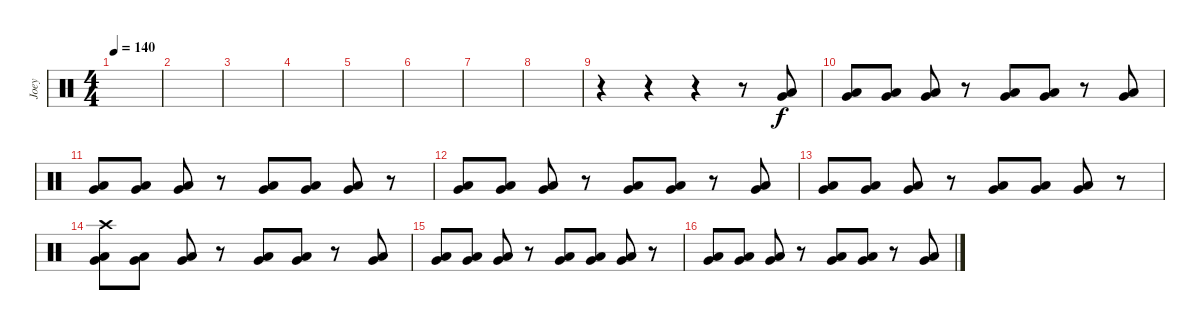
\track ("Joey" "Joey") {instrument percussion}
\staff {score}
\articulation defaults
\ts (4 4)
\tempo 140
\clef neutral
\ks c
|
|
|
|
|
|
|
|
r.4 r.4 r.4 r.8 ("Very Low Tom (hit)" "Low Floor Tom (hit)").8 |
("Very Low Tom (hit)" "Low Floor Tom (hit)").8 ("Very Low Tom (hit)" "Low Floor Tom (hit)").8 ("Very Low Tom (hit)" "Low Floor Tom (hit)").8 r.8 ("Very Low Tom (hit)" "Low Floor Tom (hit)").8 ("Very Low Tom (hit)" "Low Floor Tom (hit)").8 r.8 ("Very Low Tom (hit)" "Low Floor Tom (hit)").8 |
("Very Low Tom (hit)" "Low Floor Tom (hit)").8 ("Very Low Tom (hit)" "Low Floor Tom (hit)").8 ("Very Low Tom (hit)" "Low Floor Tom (hit)").8 r.8 ("Very Low Tom (hit)" "Low Floor Tom (hit)").8 ("Very Low Tom (hit)" "Low Floor Tom (hit)").8 ("Very Low Tom (hit)" "Low Floor Tom (hit)").8 r.8 |
("Very Low Tom (hit)" "Low Floor Tom (hit)").8 ("Very Low Tom (hit)" "Low Floor Tom (hit)").8 ("Very Low Tom (hit)" "Low Floor Tom (hit)").8 r.8 ("Very Low Tom (hit)" "Low Floor Tom (hit)").8 ("Very Low Tom (hit)" "Low Floor Tom (hit)").8 r.8 ("Very Low Tom (hit)" "Low Floor Tom (hit)").8 |
("Very Low Tom (hit)" "Low Floor Tom (hit)").8 ("Very Low Tom (hit)" "Low Floor Tom (hit)").8 ("Very Low Tom (hit)" "Low Floor Tom (hit)").8 r.8 ("Very Low Tom (hit)" "Low Floor Tom (hit)").8 ("Very Low Tom (hit)" "Low Floor Tom (hit)").8 ("Very Low Tom (hit)" "Low Floor Tom (hit)").8 r.8 |
("Crash high (hit)" "Very Low Tom (hit)" "Low Floor Tom (hit)").8 ("Very Low Tom (hit)" "Low Floor Tom (hit)").8 ("Very Low Tom (hit)" "Low Floor Tom (hit)").8 r.8 ("Very Low Tom (hit)" "Low Floor Tom (hit)").8 ("Very Low Tom (hit)" "Low Floor Tom (hit)").8 r.8 ("Very Low Tom (hit)" "Low Floor Tom (hit)").8 |
("Very Low Tom (hit)" "Low Floor Tom (hit)").8 ("Very Low Tom (hit)" "Low Floor Tom (hit)").8 ("Very Low Tom (hit)" "Low Floor Tom (hit)").8 r.8 ("Very Low Tom (hit)" "Low Floor Tom (hit)").8 ("Very Low Tom (hit)" "Low Floor Tom (hit)").8 ("Very Low Tom (hit)" "Low Floor Tom (hit)").8 r.8 |
("Very Low Tom (hit)" "Low Floor Tom (hit)").8 ("Very Low Tom (hit)" "Low Floor Tom (hit)").8 ("Very Low Tom (hit)" "Low Floor Tom (hit)").8 r.8 ("Very Low Tom (hit)" "Low Floor Tom (hit)").8 ("Very Low Tom (hit)" "Low Floor Tom (hit)").8 r.8 ("Very Low Tom (hit)" "Low Floor Tom (hit)").8
